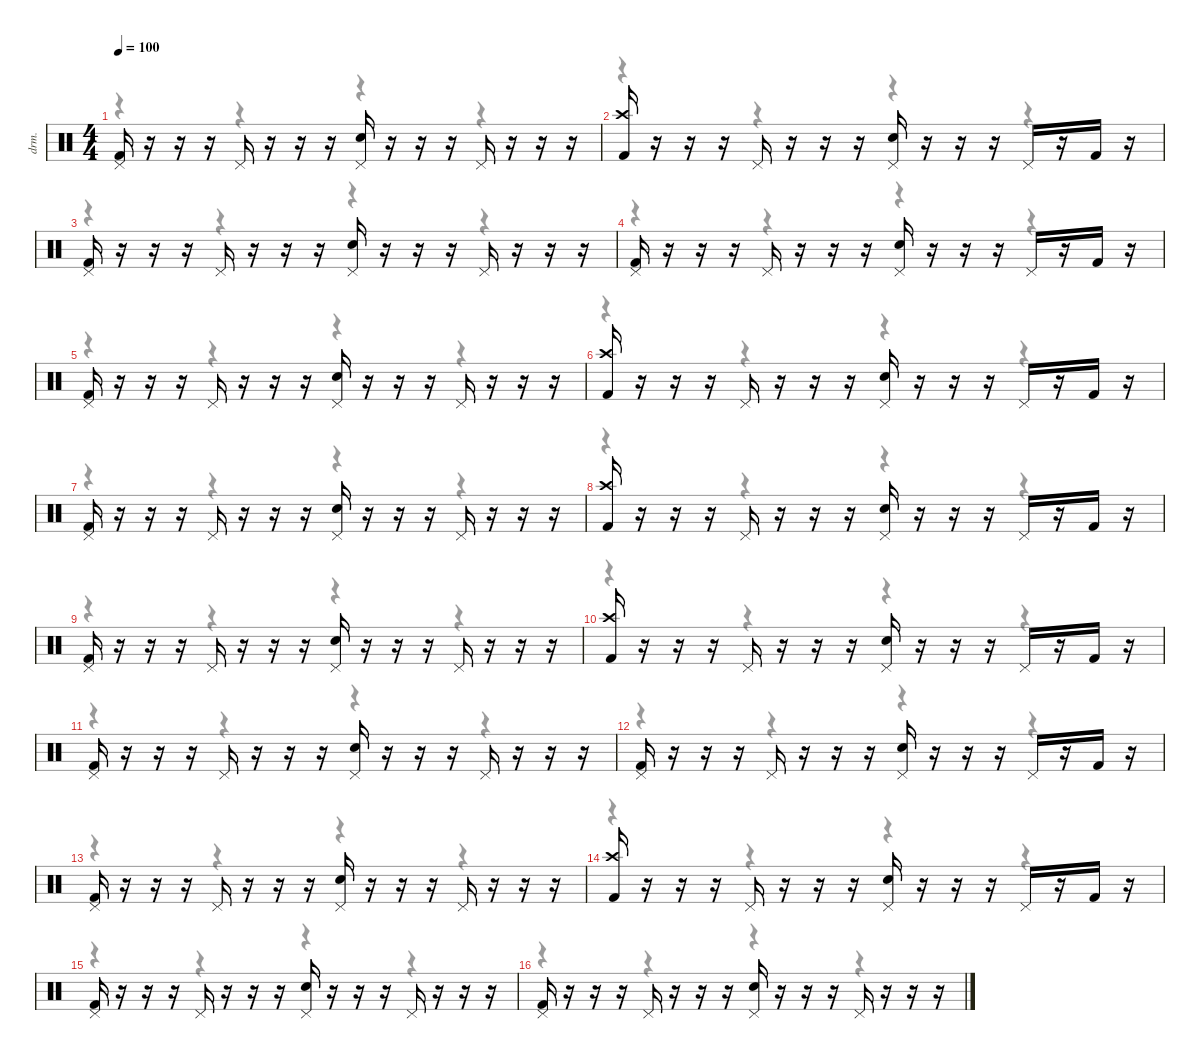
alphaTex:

\defaultSystemsLayout 4
\hideDynamics
\bracketExtendMode nobrackets
\otherSystemsTrackNameOrientation horizontal
\track ("Drums" "drm.") {instrument percussion}
\staff {score}
\articulation defaults
\voice
\ts (4 4)
\tempo 100
\clef neutral
\ks c
("Kick (hit) 2" "Pedal Hi-Hat (hit)").16{dy ff} r.16 r.16 r.16 "Pedal Hi-Hat (hit)".16 r.16 r.16 r.16 ("Snare (hit) 2" "Pedal Hi-Hat (hit)").16 r.16 r.16 r.16 "Pedal Hi-Hat (hit)".16 r.16 r.16 r.16 |
("Kick (hit) 2" "Crash high (hit)").16 r.16 r.16 r.16 "Pedal Hi-Hat (hit)".16 r.16 r.16 r.16 ("Snare (hit) 2" "Pedal Hi-Hat (hit)").16 r.16 r.16 r.16 "Pedal Hi-Hat (hit)".16 r.16 "Kick (hit) 2".16 r.16 |
("Kick (hit) 2" "Pedal Hi-Hat (hit)").16 r.16 r.16 r.16 "Pedal Hi-Hat (hit)".16 r.16 r.16 r.16 ("Snare (hit) 2" "Pedal Hi-Hat (hit)").16 r.16 r.16 r.16 "Pedal Hi-Hat (hit)".16 r.16 r.16 r.16 |
("Kick (hit) 2" "Pedal Hi-Hat (hit)").16 r.16 r.16 r.16 "Pedal Hi-Hat (hit)".16 r.16 r.16 r.16 ("Snare (hit) 2" "Pedal Hi-Hat (hit)").16 r.16 r.16 r.16 "Pedal Hi-Hat (hit)".16 r.16 "Kick (hit) 2".16 r.16 |
("Kick (hit) 2" "Pedal Hi-Hat (hit)").16 r.16 r.16 r.16 "Pedal Hi-Hat (hit)".16 r.16 r.16 r.16 ("Snare (hit) 2" "Pedal Hi-Hat (hit)").16 r.16 r.16 r.16 "Pedal Hi-Hat (hit)".16 r.16 r.16 r.16 |
("Kick (hit) 2" "Crash high (hit)").16 r.16 r.16 r.16 "Pedal Hi-Hat (hit)".16 r.16 r.16 r.16 ("Snare (hit) 2" "Pedal Hi-Hat (hit)").16 r.16 r.16 r.16 "Pedal Hi-Hat (hit)".16 r.16 "Kick (hit) 2".16 r.16 |
("Kick (hit) 2" "Pedal Hi-Hat (hit)").16 r.16 r.16 r.16 "Pedal Hi-Hat (hit)".16 r.16 r.16 r.16 ("Snare (hit) 2" "Pedal Hi-Hat (hit)").16 r.16 r.16 r.16 "Pedal Hi-Hat (hit)".16 r.16 r.16 r.16 |
("Kick (hit) 2" "Crash high (hit)").16 r.16 r.16 r.16 "Pedal Hi-Hat (hit)".16 r.16 r.16 r.16 ("Snare (hit) 2" "Pedal Hi-Hat (hit)").16 r.16 r.16 r.16 "Pedal Hi-Hat (hit)".16 r.16 "Kick (hit) 2".16 r.16 |
("Kick (hit) 2" "Pedal Hi-Hat (hit)").16 r.16 r.16 r.16 "Pedal Hi-Hat (hit)".16 r.16 r.16 r.16 ("Snare (hit) 2" "Pedal Hi-Hat (hit)").16 r.16 r.16 r.16 "Pedal Hi-Hat (hit)".16 r.16 r.16 r.16 |
("Kick (hit) 2" "Crash high (hit)").16 r.16 r.16 r.16 "Pedal Hi-Hat (hit)".16 r.16 r.16 r.16 ("Snare (hit) 2" "Pedal Hi-Hat (hit)").16 r.16 r.16 r.16 "Pedal Hi-Hat (hit)".16 r.16 "Kick (hit) 2".16 r.16 |
("Kick (hit) 2" "Pedal Hi-Hat (hit)").16 r.16 r.16 r.16 "Pedal Hi-Hat (hit)".16 r.16 r.16 r.16 ("Snare (hit) 2" "Pedal Hi-Hat (hit)").16 r.16 r.16 r.16 "Pedal Hi-Hat (hit)".16 r.16 r.16 r.16 |
("Kick (hit) 2" "Pedal Hi-Hat (hit)").16 r.16 r.16 r.16 "Pedal Hi-Hat (hit)".16 r.16 r.16 r.16 ("Snare (hit) 2" "Pedal Hi-Hat (hit)").16 r.16 r.16 r.16 "Pedal Hi-Hat (hit)".16 r.16 "Kick (hit) 2".16 r.16 |
("Kick (hit) 2" "Pedal Hi-Hat (hit)").16 r.16 r.16 r.16 "Pedal Hi-Hat (hit)".16 r.16 r.16 r.16 ("Snare (hit) 2" "Pedal Hi-Hat (hit)").16 r.16 r.16 r.16 "Pedal Hi-Hat (hit)".16 r.16 r.16 r.16 |
("Kick (hit) 2" "Crash high (hit)").16 r.16 r.16 r.16 "Pedal Hi-Hat (hit)".16 r.16 r.16 r.16 ("Snare (hit) 2" "Pedal Hi-Hat (hit)").16 r.16 r.16 r.16 "Pedal Hi-Hat (hit)".16 r.16 "Kick (hit) 2".16 r.16 |
("Kick (hit) 2" "Pedal Hi-Hat (hit)").16 r.16 r.16 r.16 "Pedal Hi-Hat (hit)".16 r.16 r.16 r.16 ("Snare (hit) 2" "Pedal Hi-Hat (hit)").16 r.16 r.16 r.16 "Pedal Hi-Hat (hit)".16 r.16 r.16 r.16 |
("Kick (hit) 2" "Pedal Hi-Hat (hit)").16 r.16 r.16 r.16 "Pedal Hi-Hat (hit)".16 r.16 r.16 r.16 ("Snare (hit) 2" "Pedal Hi-Hat (hit)").16 r.16 r.16 r.16 "Pedal Hi-Hat (hit)".16 r.16 r.16 r.16
\voice
\clef neutral
\ottava regular
\simile none
\ks c
r.4{dy mf} r.4 r.4 r.4 |
r.4 r.4 r.4 r.4 |
r.4 r.4 r.4 r.4 |
r.4 r.4 r.4 r.4 |
r.4 r.4 r.4 r.4 |
r.4 r.4 r.4 r.4 |
r.4 r.4 r.4 r.4 |
r.4 r.4 r.4 r.4 |
r.4 r.4 r.4 r.4 |
r.4 r.4 r.4 r.4 |
r.4 r.4 r.4 r.4 |
r.4 r.4 r.4 r.4 |
r.4 r.4 r.4 r.4 |
r.4 r.4 r.4 r.4 |
r.4 r.4 r.4 r.4 |
r.4 r.4 r.4 r.4
